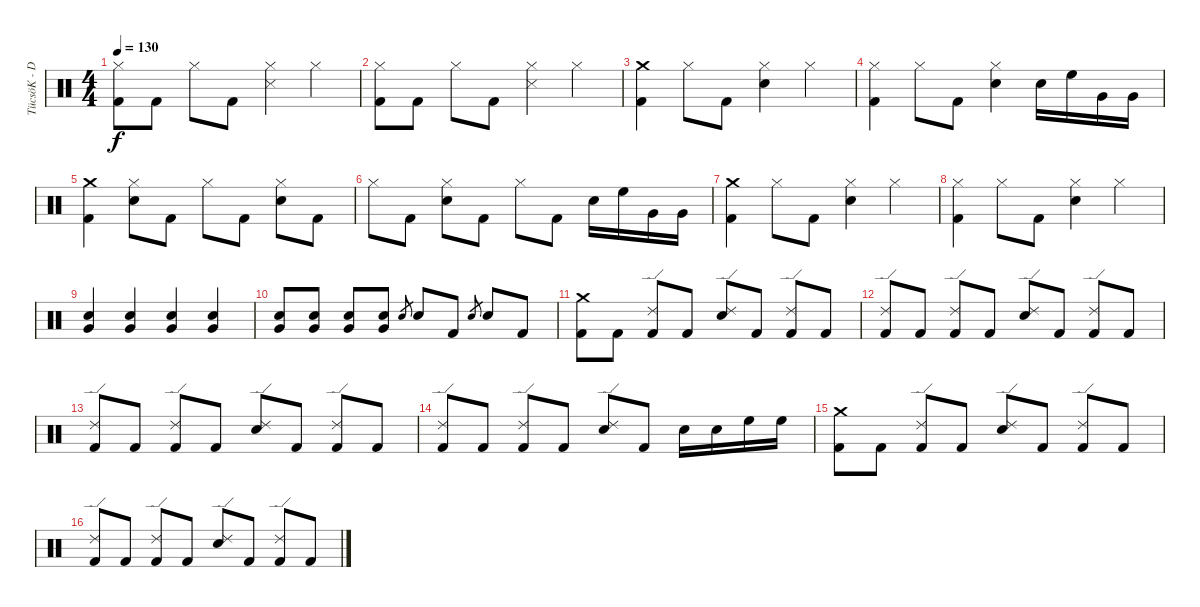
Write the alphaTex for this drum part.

\track ("TücsöK - Dob" "TücsöK - D") {instrument percussion}
\staff {score}
\articulation defaults
\ts (4 4)
\tempo 130
\clef neutral
\ks c
("Hi-Hat (closed)" "Kick (hit) 2").8{dy f} "Kick (hit) 2".8 "Hi-Hat (closed)".8 "Kick (hit) 2".8 ("Hi-Hat (closed)" "Snare (side stick) 3").4 "Hi-Hat (closed)".4 |
("Hi-Hat (closed)" "Kick (hit) 2").8 "Kick (hit) 2".8 "Hi-Hat (closed)".8 "Kick (hit) 2".8 ("Hi-Hat (closed)" "Snare (side stick) 3").4 "Hi-Hat (closed)".4 |
("Crash medium (hit)" "Kick (hit) 2").4 "Hi-Hat (closed)".8 "Kick (hit) 2".8 ("Hi-Hat (closed)" "Snare (hit) 2").4 "Hi-Hat (closed)".4 |
("Hi-Hat (closed)" "Kick (hit) 2").4 "Hi-Hat (closed)".8 "Kick (hit) 2".8 ("Hi-Hat (closed)" "Snare (hit) 2").4 "Snare (hit) 2".16 "High Floor Tom (hit)".16 "Very Low Tom (hit)".16 "Very Low Tom (hit)".16 |
("Crash medium (hit)" "Kick (hit) 2").4 ("Hi-Hat (closed)" "Snare (hit) 2").8 "Kick (hit) 2".8 "Hi-Hat (closed)".8 "Kick (hit) 2".8 ("Hi-Hat (closed)" "Snare (hit) 2").8 "Kick (hit) 2".8 |
"Hi-Hat (closed)".8 "Kick (hit) 2".8 ("Hi-Hat (closed)" "Snare (hit) 2").8 "Kick (hit) 2".8 "Hi-Hat (closed)".8 "Kick (hit) 2".8 "Snare (hit) 2".16 "High Floor Tom (hit)".16 "Very Low Tom (hit)".16 "Very Low Tom (hit)".16 |
("Crash medium (hit)" "Kick (hit) 2").4 "Hi-Hat (closed)".8 "Kick (hit) 2".8 ("Hi-Hat (closed)" "Snare (hit) 2").4 "Hi-Hat (closed)".4 |
("Hi-Hat (closed)" "Kick (hit) 2").4 "Hi-Hat (closed)".8 "Kick (hit) 2".8 ("Hi-Hat (closed)" "Snare (hit) 2").4 "Hi-Hat (closed)".4 |
("Snare (hit) 2" "Very Low Tom (hit)").4 ("Snare (hit) 2" "Very Low Tom (hit)").4 ("Snare (hit) 2" "Very Low Tom (hit)").4 ("Snare (hit) 2" "Very Low Tom (hit)").4 |
("Snare (hit) 2" "Very Low Tom (hit)").8 ("Snare (hit) 2" "Very Low Tom (hit)").8 ("Snare (hit) 2" "Very Low Tom (hit)").8 ("Snare (hit) 2" "Very Low Tom (hit)").8 "Snare (hit) 2".8{gr} "Snare (hit) 2".8 "Kick (hit) 2".8 "Snare (hit) 2".8{gr} "Snare (hit) 2".8 "Kick (hit) 2".8 |
("Crash medium (hit)" "Kick (hit) 2").8 "Kick (hit) 2".8 ("Ride (edge) 2" "Kick (hit) 2").8 "Kick (hit) 2".8 ("Ride (edge) 2" "Snare (hit) 2").8 "Kick (hit) 2".8 ("Ride (edge) 2" "Kick (hit) 2").8 "Kick (hit) 2".8 |
("Ride (edge) 2" "Kick (hit) 2").8 "Kick (hit) 2".8 ("Ride (edge) 2" "Kick (hit) 2").8 "Kick (hit) 2".8 ("Ride (edge) 2" "Snare (hit) 2").8 "Kick (hit) 2".8 ("Ride (edge) 2" "Kick (hit) 2").8 "Kick (hit) 2".8 |
("Ride (edge) 2" "Kick (hit) 2").8 "Kick (hit) 2".8 ("Ride (edge) 2" "Kick (hit) 2").8 "Kick (hit) 2".8 ("Ride (edge) 2" "Snare (hit) 2").8 "Kick (hit) 2".8 ("Ride (edge) 2" "Kick (hit) 2").8 "Kick (hit) 2".8 |
("Ride (edge) 2" "Kick (hit) 2").8 "Kick (hit) 2".8 ("Ride (edge) 2" "Kick (hit) 2").8 "Kick (hit) 2".8 ("Ride (edge) 2" "Snare (hit) 2").8 "Kick (hit) 2".8 "Snare (hit) 2".16 "Snare (hit) 2".16 "High Floor Tom (hit)".16 "High Floor Tom (hit)".16 |
("Crash medium (hit)" "Kick (hit) 2").8 "Kick (hit) 2".8 ("Ride (edge) 2" "Kick (hit) 2").8 "Kick (hit) 2".8 ("Ride (edge) 2" "Snare (hit) 2").8 "Kick (hit) 2".8 ("Ride (edge) 2" "Kick (hit) 2").8 "Kick (hit) 2".8 |
("Ride (edge) 2" "Kick (hit) 2").8 "Kick (hit) 2".8 ("Ride (edge) 2" "Kick (hit) 2").8 "Kick (hit) 2".8 ("Ride (edge) 2" "Snare (hit) 2").8 "Kick (hit) 2".8 ("Ride (edge) 2" "Kick (hit) 2").8 "Kick (hit) 2".8
